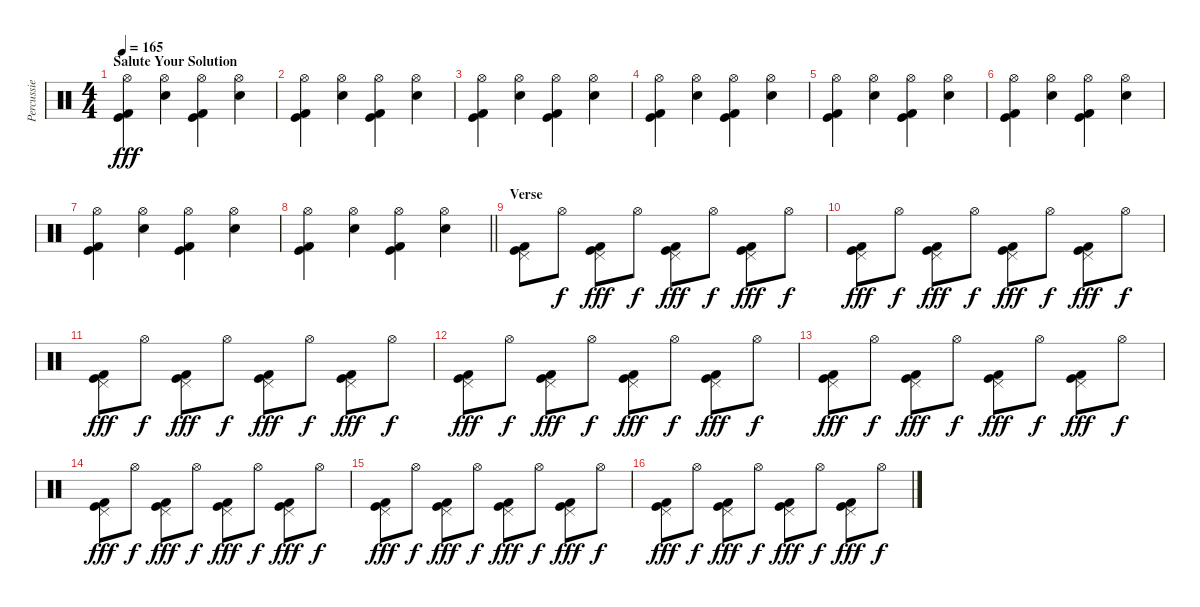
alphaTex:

\track ("Percussie" "Percussie") {instrument percussion}
\staff {score}
\articulation defaults
\ts (4 4)
\section ("" "Salute Your Solution")
\tempo 165
\clef neutral
\ks c
("Hi-Hat (open)" "Kick (hit)" "Kick (hit) 2").4{dy fff} ("Hi-Hat (open)" "Snare (hit) 2").4 ("Hi-Hat (open)" "Kick (hit)" "Kick (hit) 2").4 ("Hi-Hat (open)" "Snare (hit) 2").4 |
("Hi-Hat (open)" "Kick (hit)" "Kick (hit) 2").4 ("Hi-Hat (open)" "Snare (hit) 2").4 ("Hi-Hat (open)" "Kick (hit)" "Kick (hit) 2").4 ("Hi-Hat (open)" "Snare (hit) 2").4 |
("Hi-Hat (open)" "Kick (hit)" "Kick (hit) 2").4 ("Hi-Hat (open)" "Snare (hit) 2").4 ("Hi-Hat (open)" "Kick (hit)" "Kick (hit) 2").4 ("Hi-Hat (open)" "Snare (hit) 2").4 |
("Hi-Hat (open)" "Kick (hit)" "Kick (hit) 2").4 ("Hi-Hat (open)" "Snare (hit) 2").4 ("Hi-Hat (open)" "Kick (hit)" "Kick (hit) 2").4 ("Hi-Hat (open)" "Snare (hit) 2").4 |
("Hi-Hat (open)" "Kick (hit)" "Kick (hit) 2").4 ("Hi-Hat (open)" "Snare (hit) 2").4 ("Hi-Hat (open)" "Kick (hit)" "Kick (hit) 2").4 ("Hi-Hat (open)" "Snare (hit) 2").4 |
("Hi-Hat (open)" "Kick (hit)" "Kick (hit) 2").4 ("Hi-Hat (open)" "Snare (hit) 2").4 ("Hi-Hat (open)" "Kick (hit)" "Kick (hit) 2").4 ("Hi-Hat (open)" "Snare (hit) 2").4 |
("Hi-Hat (open)" "Kick (hit)" "Kick (hit) 2").4 ("Hi-Hat (open)" "Snare (hit) 2").4 ("Hi-Hat (open)" "Kick (hit)" "Kick (hit) 2").4 ("Hi-Hat (open)" "Snare (hit) 2").4 |
\barLineRight lightlight
("Hi-Hat (open)" "Kick (hit)" "Kick (hit) 2").4 ("Hi-Hat (open)" "Snare (hit) 2").4 ("Hi-Hat (open)" "Kick (hit)" "Kick (hit) 2").4 ("Hi-Hat (open)" "Snare (hit) 2").4 |
\section ("" "Verse")
("Pedal Hi-Hat (hit)" "Kick (hit)" "Kick (hit) 2").8 "Hi-Hat (open)".8{dy f} ("Pedal Hi-Hat (hit)" "Kick (hit)" "Kick (hit) 2").8{dy fff} "Hi-Hat (open)".8{dy f} ("Pedal Hi-Hat (hit)" "Kick (hit)" "Kick (hit) 2").8{dy fff} "Hi-Hat (open)".8{dy f} ("Pedal Hi-Hat (hit)" "Kick (hit)" "Kick (hit) 2").8{dy fff} "Hi-Hat (open)".8{dy f} |
("Pedal Hi-Hat (hit)" "Kick (hit)" "Kick (hit) 2").8{dy fff} "Hi-Hat (open)".8{dy f} ("Pedal Hi-Hat (hit)" "Kick (hit)" "Kick (hit) 2").8{dy fff} "Hi-Hat (open)".8{dy f} ("Pedal Hi-Hat (hit)" "Kick (hit)" "Kick (hit) 2").8{dy fff} "Hi-Hat (open)".8{dy f} ("Pedal Hi-Hat (hit)" "Kick (hit)" "Kick (hit) 2").8{dy fff} "Hi-Hat (open)".8{dy f} |
("Pedal Hi-Hat (hit)" "Kick (hit)" "Kick (hit) 2").8{dy fff} "Hi-Hat (open)".8{dy f} ("Pedal Hi-Hat (hit)" "Kick (hit)" "Kick (hit) 2").8{dy fff} "Hi-Hat (open)".8{dy f} ("Pedal Hi-Hat (hit)" "Kick (hit)" "Kick (hit) 2").8{dy fff} "Hi-Hat (open)".8{dy f} ("Pedal Hi-Hat (hit)" "Kick (hit)" "Kick (hit) 2").8{dy fff} "Hi-Hat (open)".8{dy f} |
("Pedal Hi-Hat (hit)" "Kick (hit)" "Kick (hit) 2").8{dy fff} "Hi-Hat (open)".8{dy f} ("Pedal Hi-Hat (hit)" "Kick (hit)" "Kick (hit) 2").8{dy fff} "Hi-Hat (open)".8{dy f} ("Pedal Hi-Hat (hit)" "Kick (hit)" "Kick (hit) 2").8{dy fff} "Hi-Hat (open)".8{dy f} ("Pedal Hi-Hat (hit)" "Kick (hit)" "Kick (hit) 2").8{dy fff} "Hi-Hat (open)".8{dy f} |
("Pedal Hi-Hat (hit)" "Kick (hit)" "Kick (hit) 2").8{dy fff} "Hi-Hat (open)".8{dy f} ("Pedal Hi-Hat (hit)" "Kick (hit)" "Kick (hit) 2").8{dy fff} "Hi-Hat (open)".8{dy f} ("Pedal Hi-Hat (hit)" "Kick (hit)" "Kick (hit) 2").8{dy fff} "Hi-Hat (open)".8{dy f} ("Pedal Hi-Hat (hit)" "Kick (hit)" "Kick (hit) 2").8{dy fff} "Hi-Hat (open)".8{dy f} |
("Pedal Hi-Hat (hit)" "Kick (hit)" "Kick (hit) 2").8{dy fff} "Hi-Hat (open)".8{dy f} ("Pedal Hi-Hat (hit)" "Kick (hit)" "Kick (hit) 2").8{dy fff} "Hi-Hat (open)".8{dy f} ("Pedal Hi-Hat (hit)" "Kick (hit)" "Kick (hit) 2").8{dy fff} "Hi-Hat (open)".8{dy f} ("Pedal Hi-Hat (hit)" "Kick (hit)" "Kick (hit) 2").8{dy fff} "Hi-Hat (open)".8{dy f} |
("Pedal Hi-Hat (hit)" "Kick (hit)" "Kick (hit) 2").8{dy fff} "Hi-Hat (open)".8{dy f} ("Pedal Hi-Hat (hit)" "Kick (hit)" "Kick (hit) 2").8{dy fff} "Hi-Hat (open)".8{dy f} ("Pedal Hi-Hat (hit)" "Kick (hit)" "Kick (hit) 2").8{dy fff} "Hi-Hat (open)".8{dy f} ("Pedal Hi-Hat (hit)" "Kick (hit)" "Kick (hit) 2").8{dy fff} "Hi-Hat (open)".8{dy f} |
("Pedal Hi-Hat (hit)" "Kick (hit)" "Kick (hit) 2").8{dy fff} "Hi-Hat (open)".8{dy f} ("Pedal Hi-Hat (hit)" "Kick (hit)" "Kick (hit) 2").8{dy fff} "Hi-Hat (open)".8{dy f} ("Pedal Hi-Hat (hit)" "Kick (hit)" "Kick (hit) 2").8{dy fff} "Hi-Hat (open)".8{dy f} ("Pedal Hi-Hat (hit)" "Kick (hit)" "Kick (hit) 2").8{dy fff} "Hi-Hat (open)".8{dy f}
